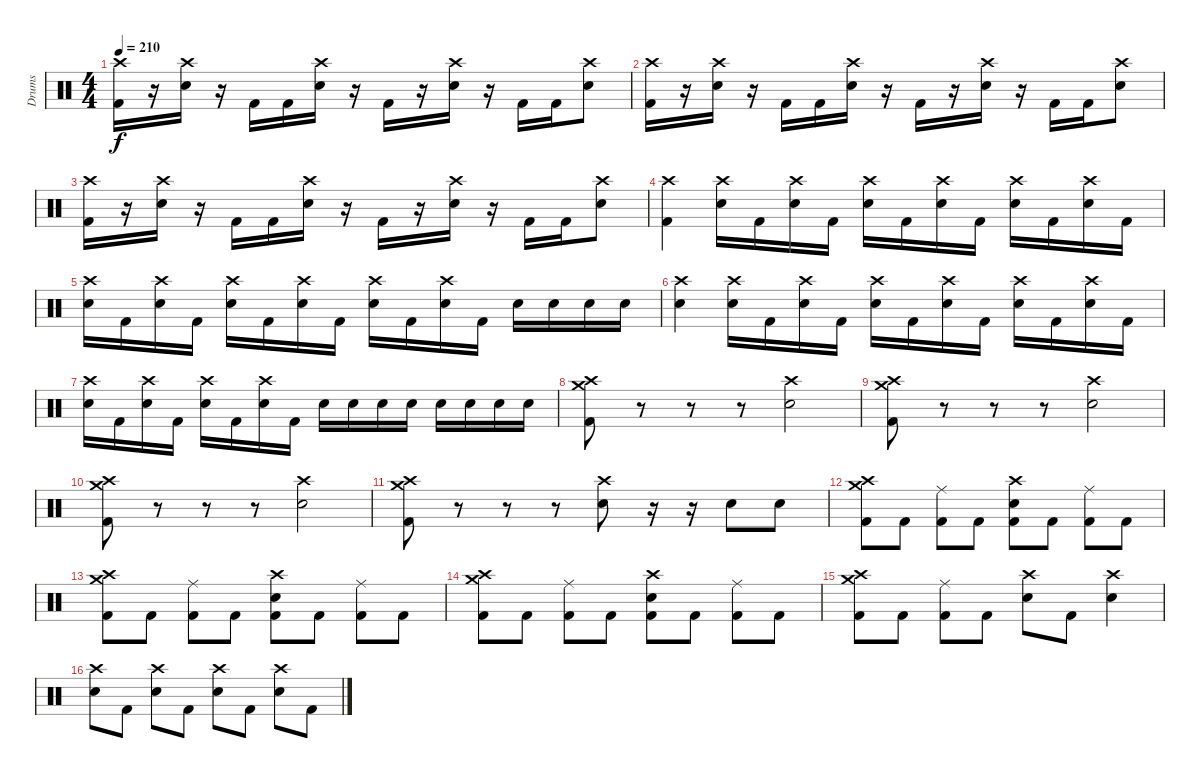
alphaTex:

\track ("Drums" "Drums") {instrument percussion}
\staff {score}
\articulation defaults
\ts (4 4)
\tempo 210
\clef neutral
\ks c
("Crash high (hit)" "Kick (hit) 2").16{dy f} r.16 ("Crash high (hit)" "Snare (hit) 2").16 r.16 "Kick (hit) 2".16 "Kick (hit) 2".16 ("Crash high (hit)" "Snare (hit) 2").16 r.16 "Kick (hit) 2".16 r.16 ("Crash high (hit)" "Snare (hit) 2").16 r.16 "Kick (hit) 2".16 "Kick (hit) 2".16 ("Crash high (hit)" "Snare (hit) 2").8 |
("Crash high (hit)" "Kick (hit) 2").16 r.16 ("Crash high (hit)" "Snare (hit) 2").16 r.16 "Kick (hit) 2".16 "Kick (hit) 2".16 ("Crash high (hit)" "Snare (hit) 2").16 r.16 "Kick (hit) 2".16 r.16 ("Crash high (hit)" "Snare (hit) 2").16 r.16 "Kick (hit) 2".16 "Kick (hit) 2".16 ("Crash high (hit)" "Snare (hit) 2").8 |
("Crash high (hit)" "Kick (hit) 2").16 r.16 ("Crash high (hit)" "Snare (hit) 2").16 r.16 "Kick (hit) 2".16 "Kick (hit) 2".16 ("Crash high (hit)" "Snare (hit) 2").16 r.16 "Kick (hit) 2".16 r.16 ("Crash high (hit)" "Snare (hit) 2").16 r.16 "Kick (hit) 2".16 "Kick (hit) 2".16 ("Crash high (hit)" "Snare (hit) 2").8 |
("Crash high (hit)" "Kick (hit) 2").4 ("Crash high (hit)" "Snare (hit) 2").16 "Kick (hit) 2".16 ("Crash high (hit)" "Snare (hit) 2").16 "Kick (hit) 2".16 ("Crash high (hit)" "Snare (hit) 2").16 "Kick (hit) 2".16 ("Crash high (hit)" "Snare (hit) 2").16 "Kick (hit) 2".16 ("Crash high (hit)" "Snare (hit) 2").16 "Kick (hit) 2".16 ("Crash high (hit)" "Snare (hit) 2").16 "Kick (hit) 2".16 |
("Crash high (hit)" "Snare (hit) 2").16 "Kick (hit) 2".16 ("Crash high (hit)" "Snare (hit) 2").16 "Kick (hit) 2".16 ("Crash high (hit)" "Snare (hit) 2").16 "Kick (hit) 2".16 ("Crash high (hit)" "Snare (hit) 2").16 "Kick (hit) 2".16 ("Crash high (hit)" "Snare (hit) 2").16 "Kick (hit) 2".16 ("Crash high (hit)" "Snare (hit) 2").16 "Kick (hit) 2".16 "Snare (hit) 2".16 "Snare (hit) 2".16 "Snare (hit) 2".16 "Snare (hit) 2".16 |
("Crash high (hit)" "Snare (hit) 2").4 ("Crash high (hit)" "Snare (hit) 2").16 "Kick (hit) 2".16 ("Crash high (hit)" "Snare (hit) 2").16 "Kick (hit) 2".16 ("Crash high (hit)" "Snare (hit) 2").16 "Kick (hit) 2".16 ("Crash high (hit)" "Snare (hit) 2").16 "Kick (hit) 2".16 ("Crash high (hit)" "Snare (hit) 2").16 "Kick (hit) 2".16 ("Crash high (hit)" "Snare (hit) 2").16 "Kick (hit) 2".16 |
("Crash high (hit)" "Snare (hit) 2").16 "Kick (hit) 2".16 ("Crash high (hit)" "Snare (hit) 2").16 "Kick (hit) 2".16 ("Crash high (hit)" "Snare (hit) 2").16 "Kick (hit) 2".16 ("Crash high (hit)" "Snare (hit) 2").16 "Kick (hit) 2".16 "Snare (hit) 2".16 "Snare (hit) 2".16 "Snare (hit) 2".16 "Snare (hit) 2".16 "Snare (hit) 2".16 "Snare (hit) 2".16 "Snare (hit) 2".16 "Snare (hit) 2".16 |
("Crash medium (hit)" "Crash high (hit)" "Kick (hit) 2").8 r.8 r.8 r.8 ("Crash high (hit)" "Snare (hit) 2").2 |
("Crash medium (hit)" "Crash high (hit)" "Kick (hit) 2").8 r.8 r.8 r.8 ("Crash high (hit)" "Snare (hit) 2").2 |
("Crash medium (hit)" "Crash high (hit)" "Kick (hit) 2").8 r.8 r.8 r.8 ("Crash high (hit)" "Snare (hit) 2").2 |
("Crash medium (hit)" "Crash high (hit)" "Kick (hit) 2").8 r.8 r.8 r.8 ("Crash high (hit)" "Snare (hit) 2").8 r.16 r.16 "Snare (hit) 2".8 "Snare (hit) 2".8 |
("Crash medium (hit)" "Crash high (hit)" "Kick (hit) 2").8 "Kick (hit) 2".8 ("Ride (middle)" "Kick (hit) 2").8 "Kick (hit) 2".8 ("Crash high (hit)" "Snare (hit) 2" "Kick (hit) 2").8 "Kick (hit) 2".8 ("Ride (middle)" "Kick (hit) 2").8 "Kick (hit) 2".8 |
("Crash medium (hit)" "Crash high (hit)" "Kick (hit) 2").8 "Kick (hit) 2".8 ("Ride (middle)" "Kick (hit) 2").8 "Kick (hit) 2".8 ("Crash high (hit)" "Snare (hit) 2" "Kick (hit) 2").8 "Kick (hit) 2".8 ("Ride (middle)" "Kick (hit) 2").8 "Kick (hit) 2".8 |
("Crash medium (hit)" "Crash high (hit)" "Kick (hit) 2").8 "Kick (hit) 2".8 ("Ride (middle)" "Kick (hit) 2").8 "Kick (hit) 2".8 ("Crash high (hit)" "Snare (hit) 2" "Kick (hit) 2").8 "Kick (hit) 2".8 ("Ride (middle)" "Kick (hit) 2").8 "Kick (hit) 2".8 |
("Crash medium (hit)" "Crash high (hit)" "Kick (hit) 2").8 "Kick (hit) 2".8 ("Ride (middle)" "Kick (hit) 2").8 "Kick (hit) 2".8 ("Crash high (hit)" "Snare (hit) 2").8 "Kick (hit) 2".8 ("Crash high (hit)" "Snare (hit) 2").4 |
("Crash high (hit)" "Snare (hit) 2").8 "Kick (hit) 2".8 ("Crash high (hit)" "Snare (hit) 2").8 "Kick (hit) 2".8 ("Crash high (hit)" "Snare (hit) 2").8 "Kick (hit) 2".8 ("Crash high (hit)" "Snare (hit) 2").8 "Kick (hit) 2".8
